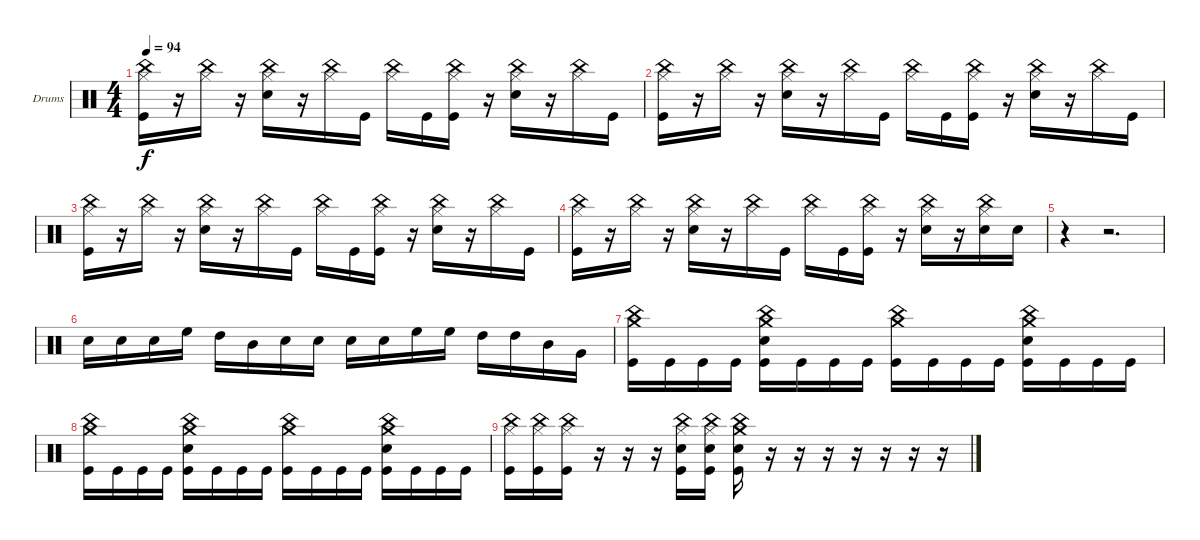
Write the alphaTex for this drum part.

\defaultSystemsLayout 4
\bracketExtendMode groupsimilarinstruments
\firstSystemTrackNameOrientation horizontal
\otherSystemsTrackNameOrientation horizontal
\track ("Lori Peters (Drums)" "Drums") {instrument percussion}
\staff {score}
\articulation defaults
\ts (4 4)
\tempo 94
\clef neutral
\ks c
("Hi-Hat (closed)" "Kick (hit)" "China (hit)").16{dy f} r.16 ("Hi-Hat (closed)" "China (hit)").16 r.16 ("Hi-Hat (closed)" "Snare (hit) 2" "China (hit)").16 r.16 ("Hi-Hat (closed)" "China (hit)").16 "Kick (hit)".16 ("Hi-Hat (closed)" "China (hit)").16 "Kick (hit)".16 ("Hi-Hat (closed)" "Kick (hit)" "China (hit)").16 r.16 ("Hi-Hat (closed)" "Snare (hit) 2" "China (hit)").16 r.16 ("Hi-Hat (closed)" "China (hit)").16 "Kick (hit)".16 |
("Hi-Hat (closed)" "Kick (hit)" "China (hit)").16 r.16 ("Hi-Hat (closed)" "China (hit)").16 r.16 ("Hi-Hat (closed)" "Snare (hit) 2" "China (hit)").16 r.16 ("Hi-Hat (closed)" "China (hit)").16 "Kick (hit)".16 ("Hi-Hat (closed)" "China (hit)").16 "Kick (hit)".16 ("Hi-Hat (closed)" "Kick (hit)" "China (hit)").16 r.16 ("Hi-Hat (closed)" "Snare (hit) 2" "China (hit)").16 r.16 ("Hi-Hat (closed)" "China (hit)").16 "Kick (hit)".16 |
("Hi-Hat (closed)" "Kick (hit)" "China (hit)").16 r.16 ("Hi-Hat (closed)" "China (hit)").16 r.16 ("Hi-Hat (closed)" "Snare (hit) 2" "China (hit)").16 r.16 ("Hi-Hat (closed)" "China (hit)").16 "Kick (hit)".16 ("Hi-Hat (closed)" "China (hit)").16 "Kick (hit)".16 ("Hi-Hat (closed)" "Kick (hit)" "China (hit)").16 r.16 ("Hi-Hat (closed)" "Snare (hit) 2" "China (hit)").16 r.16 ("Hi-Hat (closed)" "China (hit)").16 "Kick (hit)".16 |
("Hi-Hat (closed)" "Kick (hit)" "China (hit)").16 r.16 ("Hi-Hat (closed)" "China (hit)").16 r.16 ("Hi-Hat (closed)" "Snare (hit) 2" "China (hit)").16 r.16 ("Hi-Hat (closed)" "China (hit)").16 "Kick (hit)".16 ("Hi-Hat (closed)" "China (hit)").16 "Kick (hit)".16 ("Hi-Hat (closed)" "Kick (hit)" "China (hit)").16 r.16 ("Hi-Hat (closed)" "Snare (hit) 2" "China (hit)").16 r.16 ("Hi-Hat (closed)" "Snare (hit) 2" "China (hit)").16 "Snare (hit) 2".16 |
r.4 r.2{d} |
"Snare (hit) 2".16 "Snare (hit) 2".16 "Snare (hit) 2".16 "High Floor Tom (hit)".16 "High Tom (hit)".16 "Mid Tom (hit)".16 "Snare (hit) 2".16 "Snare (hit) 2".16 "Snare (hit) 2".16 "Snare (hit) 2".16 "High Floor Tom (hit)".16 "High Floor Tom (hit)".16 "High Tom (hit)".16 "High Tom (hit)".16 "Mid Tom (hit)".16 "Very Low Tom (hit)".16 |
("Crash medium (hit)" "Kick (hit)" "China (hit)").16 "Kick (hit)".16 "Kick (hit)".16 "Kick (hit)".16 ("Crash medium (hit)" "Snare (hit) 2" "Kick (hit)" "China (hit)").16 "Kick (hit)".16 "Kick (hit)".16 "Kick (hit)".16 ("Crash medium (hit)" "Kick (hit)" "China (hit)").16 "Kick (hit)".16 "Kick (hit)".16 "Kick (hit)".16 ("Crash medium (hit)" "Snare (hit) 2" "Kick (hit)" "China (hit)").16 "Kick (hit)".16 "Kick (hit)".16 "Kick (hit)".16 |
("Crash medium (hit)" "Kick (hit)" "China (hit)").16 "Kick (hit)".16 "Kick (hit)".16 "Kick (hit)".16 ("Crash medium (hit)" "Snare (hit) 2" "Kick (hit)" "China (hit)").16 "Kick (hit)".16 "Kick (hit)".16 "Kick (hit)".16 ("Crash medium (hit)" "Kick (hit)" "China (hit)").16 "Kick (hit)".16 "Kick (hit)".16 "Kick (hit)".16 ("Crash medium (hit)" "Snare (hit) 2" "Kick (hit)" "China (hit)").16 "Kick (hit)".16 "Kick (hit)".16 "Kick (hit)".16 |
("Hi-Hat (closed)" "Kick (hit)" "China (hit)").16 ("Hi-Hat (closed)" "Kick (hit)" "China (hit)").16 ("Hi-Hat (closed)" "Kick (hit)" "China (hit)").16 r.16 r.16 r.16 ("Hi-Hat (closed)" "Snare (hit) 2" "Kick (hit)" "China (hit)").16 ("Hi-Hat (closed)" "Snare (hit) 2" "Kick (hit)" "China (hit)").16 ("Crash medium (hit)" "Snare (hit) 2" "Kick (hit)" "China (hit)").16 r.16 r.16 r.16 r.16 r.16 r.16 r.16
